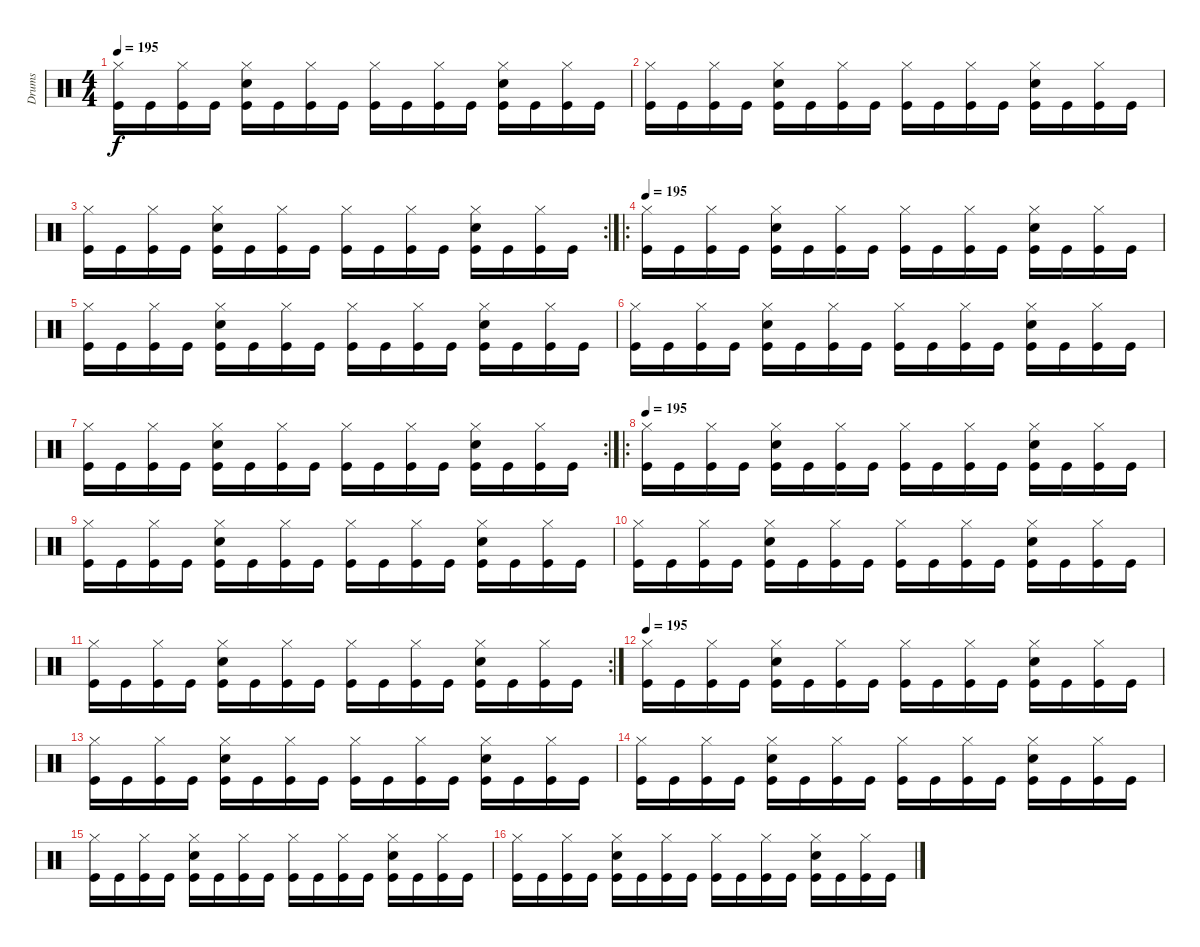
\track ("Drums" "Drums") {instrument percussion}
\staff {score}
\articulation defaults
\ts (4 4)
\tempo 195
\clef neutral
\ks c
("Hi-Hat (closed)" "Kick (hit)").16{dy f} "Kick (hit)".16 ("Hi-Hat (closed)" "Kick (hit)").16 "Kick (hit)".16 ("Hi-Hat (closed)" "Snare (hit) 2" "Kick (hit)").16 "Kick (hit)".16 ("Hi-Hat (closed)" "Kick (hit)").16 "Kick (hit)".16 ("Hi-Hat (closed)" "Kick (hit)").16 "Kick (hit)".16 ("Hi-Hat (closed)" "Kick (hit)").16 "Kick (hit)".16 ("Hi-Hat (closed)" "Snare (hit) 2" "Kick (hit)").16 "Kick (hit)".16 ("Hi-Hat (closed)" "Kick (hit)").16 "Kick (hit)".16 |
("Hi-Hat (closed)" "Kick (hit)").16 "Kick (hit)".16 ("Hi-Hat (closed)" "Kick (hit)").16 "Kick (hit)".16 ("Hi-Hat (closed)" "Snare (hit) 2" "Kick (hit)").16 "Kick (hit)".16 ("Hi-Hat (closed)" "Kick (hit)").16 "Kick (hit)".16 ("Hi-Hat (closed)" "Kick (hit)").16 "Kick (hit)".16 ("Hi-Hat (closed)" "Kick (hit)").16 "Kick (hit)".16 ("Hi-Hat (closed)" "Snare (hit) 2" "Kick (hit)").16 "Kick (hit)".16 ("Hi-Hat (closed)" "Kick (hit)").16 "Kick (hit)".16 |
\rc 2
("Hi-Hat (closed)" "Kick (hit)").16 "Kick (hit)".16 ("Hi-Hat (closed)" "Kick (hit)").16 "Kick (hit)".16 ("Hi-Hat (closed)" "Snare (hit) 2" "Kick (hit)").16 "Kick (hit)".16 ("Hi-Hat (closed)" "Kick (hit)").16 "Kick (hit)".16 ("Hi-Hat (closed)" "Kick (hit)").16 "Kick (hit)".16 ("Hi-Hat (closed)" "Kick (hit)").16 "Kick (hit)".16 ("Hi-Hat (closed)" "Snare (hit) 2" "Kick (hit)").16 "Kick (hit)".16 ("Hi-Hat (closed)" "Kick (hit)").16 "Kick (hit)".16 |
\ro
\tempo 195
("Hi-Hat (closed)" "Kick (hit)").16 "Kick (hit)".16 ("Hi-Hat (closed)" "Kick (hit)").16 "Kick (hit)".16 ("Hi-Hat (closed)" "Snare (hit) 2" "Kick (hit)").16 "Kick (hit)".16 ("Hi-Hat (closed)" "Kick (hit)").16 "Kick (hit)".16 ("Hi-Hat (closed)" "Kick (hit)").16 "Kick (hit)".16 ("Hi-Hat (closed)" "Kick (hit)").16 "Kick (hit)".16 ("Hi-Hat (closed)" "Snare (hit) 2" "Kick (hit)").16 "Kick (hit)".16 ("Hi-Hat (closed)" "Kick (hit)").16 "Kick (hit)".16 |
("Hi-Hat (closed)" "Kick (hit)").16 "Kick (hit)".16 ("Hi-Hat (closed)" "Kick (hit)").16 "Kick (hit)".16 ("Hi-Hat (closed)" "Snare (hit) 2" "Kick (hit)").16 "Kick (hit)".16 ("Hi-Hat (closed)" "Kick (hit)").16 "Kick (hit)".16 ("Hi-Hat (closed)" "Kick (hit)").16 "Kick (hit)".16 ("Hi-Hat (closed)" "Kick (hit)").16 "Kick (hit)".16 ("Hi-Hat (closed)" "Snare (hit) 2" "Kick (hit)").16 "Kick (hit)".16 ("Hi-Hat (closed)" "Kick (hit)").16 "Kick (hit)".16 |
("Hi-Hat (closed)" "Kick (hit)").16 "Kick (hit)".16 ("Hi-Hat (closed)" "Kick (hit)").16 "Kick (hit)".16 ("Hi-Hat (closed)" "Snare (hit) 2" "Kick (hit)").16 "Kick (hit)".16 ("Hi-Hat (closed)" "Kick (hit)").16 "Kick (hit)".16 ("Hi-Hat (closed)" "Kick (hit)").16 "Kick (hit)".16 ("Hi-Hat (closed)" "Kick (hit)").16 "Kick (hit)".16 ("Hi-Hat (closed)" "Snare (hit) 2" "Kick (hit)").16 "Kick (hit)".16 ("Hi-Hat (closed)" "Kick (hit)").16 "Kick (hit)".16 |
\rc 2
("Hi-Hat (closed)" "Kick (hit)").16 "Kick (hit)".16 ("Hi-Hat (closed)" "Kick (hit)").16 "Kick (hit)".16 ("Hi-Hat (closed)" "Snare (hit) 2" "Kick (hit)").16 "Kick (hit)".16 ("Hi-Hat (closed)" "Kick (hit)").16 "Kick (hit)".16 ("Hi-Hat (closed)" "Kick (hit)").16 "Kick (hit)".16 ("Hi-Hat (closed)" "Kick (hit)").16 "Kick (hit)".16 ("Hi-Hat (closed)" "Snare (hit) 2" "Kick (hit)").16 "Kick (hit)".16 ("Hi-Hat (closed)" "Kick (hit)").16 "Kick (hit)".16 |
\ro
\tempo 195
("Hi-Hat (closed)" "Kick (hit)").16 "Kick (hit)".16 ("Hi-Hat (closed)" "Kick (hit)").16 "Kick (hit)".16 ("Hi-Hat (closed)" "Snare (hit) 2" "Kick (hit)").16 "Kick (hit)".16 ("Hi-Hat (closed)" "Kick (hit)").16 "Kick (hit)".16 ("Hi-Hat (closed)" "Kick (hit)").16 "Kick (hit)".16 ("Hi-Hat (closed)" "Kick (hit)").16 "Kick (hit)".16 ("Hi-Hat (closed)" "Snare (hit) 2" "Kick (hit)").16 "Kick (hit)".16 ("Hi-Hat (closed)" "Kick (hit)").16 "Kick (hit)".16 |
("Hi-Hat (closed)" "Kick (hit)").16 "Kick (hit)".16 ("Hi-Hat (closed)" "Kick (hit)").16 "Kick (hit)".16 ("Hi-Hat (closed)" "Snare (hit) 2" "Kick (hit)").16 "Kick (hit)".16 ("Hi-Hat (closed)" "Kick (hit)").16 "Kick (hit)".16 ("Hi-Hat (closed)" "Kick (hit)").16 "Kick (hit)".16 ("Hi-Hat (closed)" "Kick (hit)").16 "Kick (hit)".16 ("Hi-Hat (closed)" "Snare (hit) 2" "Kick (hit)").16 "Kick (hit)".16 ("Hi-Hat (closed)" "Kick (hit)").16 "Kick (hit)".16 |
("Hi-Hat (closed)" "Kick (hit)").16 "Kick (hit)".16 ("Hi-Hat (closed)" "Kick (hit)").16 "Kick (hit)".16 ("Hi-Hat (closed)" "Snare (hit) 2" "Kick (hit)").16 "Kick (hit)".16 ("Hi-Hat (closed)" "Kick (hit)").16 "Kick (hit)".16 ("Hi-Hat (closed)" "Kick (hit)").16 "Kick (hit)".16 ("Hi-Hat (closed)" "Kick (hit)").16 "Kick (hit)".16 ("Hi-Hat (closed)" "Snare (hit) 2" "Kick (hit)").16 "Kick (hit)".16 ("Hi-Hat (closed)" "Kick (hit)").16 "Kick (hit)".16 |
\rc 2
("Hi-Hat (closed)" "Kick (hit)").16 "Kick (hit)".16 ("Hi-Hat (closed)" "Kick (hit)").16 "Kick (hit)".16 ("Hi-Hat (closed)" "Snare (hit) 2" "Kick (hit)").16 "Kick (hit)".16 ("Hi-Hat (closed)" "Kick (hit)").16 "Kick (hit)".16 ("Hi-Hat (closed)" "Kick (hit)").16 "Kick (hit)".16 ("Hi-Hat (closed)" "Kick (hit)").16 "Kick (hit)".16 ("Hi-Hat (closed)" "Snare (hit) 2" "Kick (hit)").16 "Kick (hit)".16 ("Hi-Hat (closed)" "Kick (hit)").16 "Kick (hit)".16 |
\tempo 195
("Hi-Hat (closed)" "Kick (hit)").16 "Kick (hit)".16 ("Hi-Hat (closed)" "Kick (hit)").16 "Kick (hit)".16 ("Hi-Hat (closed)" "Snare (hit) 2" "Kick (hit)").16 "Kick (hit)".16 ("Hi-Hat (closed)" "Kick (hit)").16 "Kick (hit)".16 ("Hi-Hat (closed)" "Kick (hit)").16 "Kick (hit)".16 ("Hi-Hat (closed)" "Kick (hit)").16 "Kick (hit)".16 ("Hi-Hat (closed)" "Snare (hit) 2" "Kick (hit)").16 "Kick (hit)".16 ("Hi-Hat (closed)" "Kick (hit)").16 "Kick (hit)".16 |
("Hi-Hat (closed)" "Kick (hit)").16 "Kick (hit)".16 ("Hi-Hat (closed)" "Kick (hit)").16 "Kick (hit)".16 ("Hi-Hat (closed)" "Snare (hit) 2" "Kick (hit)").16 "Kick (hit)".16 ("Hi-Hat (closed)" "Kick (hit)").16 "Kick (hit)".16 ("Hi-Hat (closed)" "Kick (hit)").16 "Kick (hit)".16 ("Hi-Hat (closed)" "Kick (hit)").16 "Kick (hit)".16 ("Hi-Hat (closed)" "Snare (hit) 2" "Kick (hit)").16 "Kick (hit)".16 ("Hi-Hat (closed)" "Kick (hit)").16 "Kick (hit)".16 |
("Hi-Hat (closed)" "Kick (hit)").16 "Kick (hit)".16 ("Hi-Hat (closed)" "Kick (hit)").16 "Kick (hit)".16 ("Hi-Hat (closed)" "Snare (hit) 2" "Kick (hit)").16 "Kick (hit)".16 ("Hi-Hat (closed)" "Kick (hit)").16 "Kick (hit)".16 ("Hi-Hat (closed)" "Kick (hit)").16 "Kick (hit)".16 ("Hi-Hat (closed)" "Kick (hit)").16 "Kick (hit)".16 ("Hi-Hat (closed)" "Snare (hit) 2" "Kick (hit)").16 "Kick (hit)".16 ("Hi-Hat (closed)" "Kick (hit)").16 "Kick (hit)".16 |
("Hi-Hat (closed)" "Kick (hit)").16 "Kick (hit)".16 ("Hi-Hat (closed)" "Kick (hit)").16 "Kick (hit)".16 ("Hi-Hat (closed)" "Snare (hit) 2" "Kick (hit)").16 "Kick (hit)".16 ("Hi-Hat (closed)" "Kick (hit)").16 "Kick (hit)".16 ("Hi-Hat (closed)" "Kick (hit)").16 "Kick (hit)".16 ("Hi-Hat (closed)" "Kick (hit)").16 "Kick (hit)".16 ("Hi-Hat (closed)" "Snare (hit) 2" "Kick (hit)").16 "Kick (hit)".16 ("Hi-Hat (closed)" "Kick (hit)").16 "Kick (hit)".16 |
("Hi-Hat (closed)" "Kick (hit)").16 "Kick (hit)".16 ("Hi-Hat (closed)" "Kick (hit)").16 "Kick (hit)".16 ("Hi-Hat (closed)" "Snare (hit) 2" "Kick (hit)").16 "Kick (hit)".16 ("Hi-Hat (closed)" "Kick (hit)").16 "Kick (hit)".16 ("Hi-Hat (closed)" "Kick (hit)").16 "Kick (hit)".16 ("Hi-Hat (closed)" "Kick (hit)").16 "Kick (hit)".16 ("Hi-Hat (closed)" "Snare (hit) 2" "Kick (hit)").16 "Kick (hit)".16 ("Hi-Hat (closed)" "Kick (hit)").16 "Kick (hit)".16
